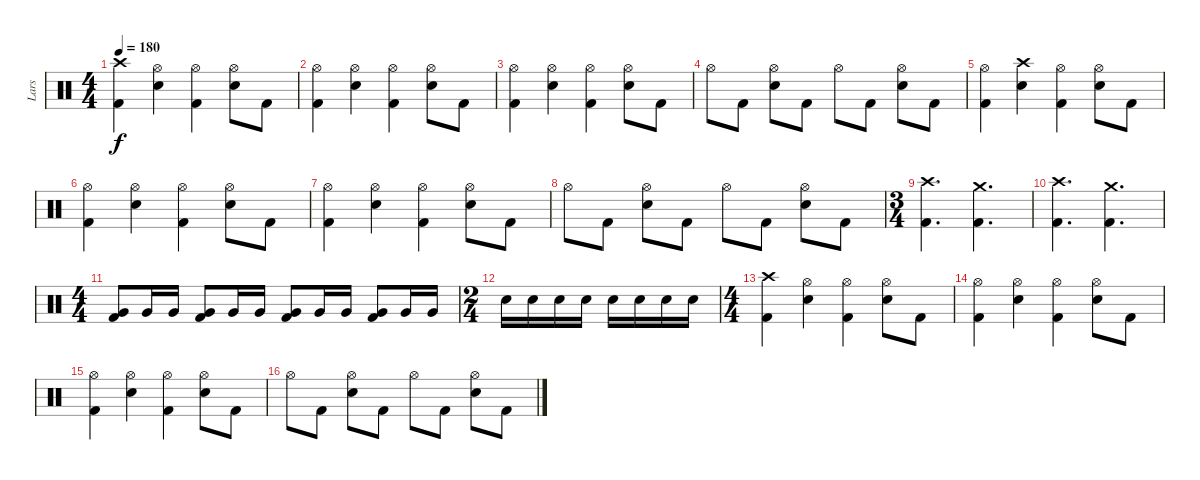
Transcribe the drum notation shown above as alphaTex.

\track ("Lars" "Lars") {instrument percussion}
\staff {score}
\articulation defaults
\ts (4 4)
\tempo 180
\clef neutral
\ks c
("Crash high (hit)" "Kick (hit) 2").4{dy f} ("Hi-Hat (open)" "Electric Snare (hit)").4 ("Hi-Hat (open)" "Kick (hit) 2").4 ("Hi-Hat (open)" "Electric Snare (hit)").8 "Kick (hit) 2".8 |
("Hi-Hat (open)" "Kick (hit) 2").4 ("Hi-Hat (open)" "Electric Snare (hit)").4 ("Hi-Hat (open)" "Kick (hit) 2").4 ("Hi-Hat (open)" "Electric Snare (hit)").8 "Kick (hit) 2".8 |
("Hi-Hat (open)" "Kick (hit) 2").4 ("Hi-Hat (open)" "Electric Snare (hit)").4 ("Hi-Hat (open)" "Kick (hit) 2").4 ("Hi-Hat (open)" "Electric Snare (hit)").8 "Kick (hit) 2".8 |
"Hi-Hat (open)".8 "Kick (hit) 2".8 ("Hi-Hat (open)" "Electric Snare (hit)").8 "Kick (hit) 2".8 "Hi-Hat (open)".8 "Kick (hit) 2".8 ("Hi-Hat (open)" "Electric Snare (hit)").8 "Kick (hit) 2".8 |
("Hi-Hat (open)" "Kick (hit) 2").4 ("Crash high (hit)" "Electric Snare (hit)").4 ("Hi-Hat (open)" "Kick (hit) 2").4 ("Hi-Hat (open)" "Electric Snare (hit)").8 "Kick (hit) 2".8 |
("Hi-Hat (open)" "Kick (hit) 2").4 ("Hi-Hat (open)" "Electric Snare (hit)").4 ("Hi-Hat (open)" "Kick (hit) 2").4 ("Hi-Hat (open)" "Electric Snare (hit)").8 "Kick (hit) 2".8 |
("Hi-Hat (open)" "Kick (hit) 2").4 ("Hi-Hat (open)" "Electric Snare (hit)").4 ("Hi-Hat (open)" "Kick (hit) 2").4 ("Hi-Hat (open)" "Electric Snare (hit)").8 "Kick (hit) 2".8 |
"Hi-Hat (open)".8 "Kick (hit) 2".8 ("Hi-Hat (open)" "Electric Snare (hit)").8 "Kick (hit) 2".8 "Hi-Hat (open)".8 "Kick (hit) 2".8 ("Hi-Hat (open)" "Electric Snare (hit)").8 "Kick (hit) 2".8 |
\ts (3 4)
("Crash high (hit)" "Kick (hit) 2").4{d} ("Crash medium (hit)" "Kick (hit) 2").4{d} |
("Crash high (hit)" "Kick (hit) 2").4{d} ("Crash medium (hit)" "Kick (hit) 2").4{d} |
\ts (4 4)
("Very Low Tom (hit)" "Kick (hit) 2").8 "Very Low Tom (hit)".16 "Very Low Tom (hit)".16 ("Very Low Tom (hit)" "Kick (hit) 2").8 "Very Low Tom (hit)".16 "Very Low Tom (hit)".16 ("Very Low Tom (hit)" "Kick (hit) 2").8 "Very Low Tom (hit)".16 "Very Low Tom (hit)".16 ("Very Low Tom (hit)" "Kick (hit) 2").8 "Very Low Tom (hit)".16 "Very Low Tom (hit)".16 |
\ts (2 4)
"Electric Snare (hit)".16 "Electric Snare (hit)".16 "Electric Snare (hit)".16 "Electric Snare (hit)".16 "Electric Snare (hit)".16 "Electric Snare (hit)".16 "Electric Snare (hit)".16 "Electric Snare (hit)".16 |
\ts (4 4)
("Crash high (hit)" "Kick (hit) 2").4 ("Hi-Hat (open)" "Electric Snare (hit)").4 ("Hi-Hat (open)" "Kick (hit) 2").4 ("Hi-Hat (open)" "Electric Snare (hit)").8 "Kick (hit) 2".8 |
("Hi-Hat (open)" "Kick (hit) 2").4 ("Hi-Hat (open)" "Electric Snare (hit)").4 ("Hi-Hat (open)" "Kick (hit) 2").4 ("Hi-Hat (open)" "Electric Snare (hit)").8 "Kick (hit) 2".8 |
("Hi-Hat (open)" "Kick (hit) 2").4 ("Hi-Hat (open)" "Electric Snare (hit)").4 ("Hi-Hat (open)" "Kick (hit) 2").4 ("Hi-Hat (open)" "Electric Snare (hit)").8 "Kick (hit) 2".8 |
"Hi-Hat (open)".8 "Kick (hit) 2".8 ("Hi-Hat (open)" "Electric Snare (hit)").8 "Kick (hit) 2".8 "Hi-Hat (open)".8 "Kick (hit) 2".8 ("Hi-Hat (open)" "Electric Snare (hit)").8 "Kick (hit) 2".8
